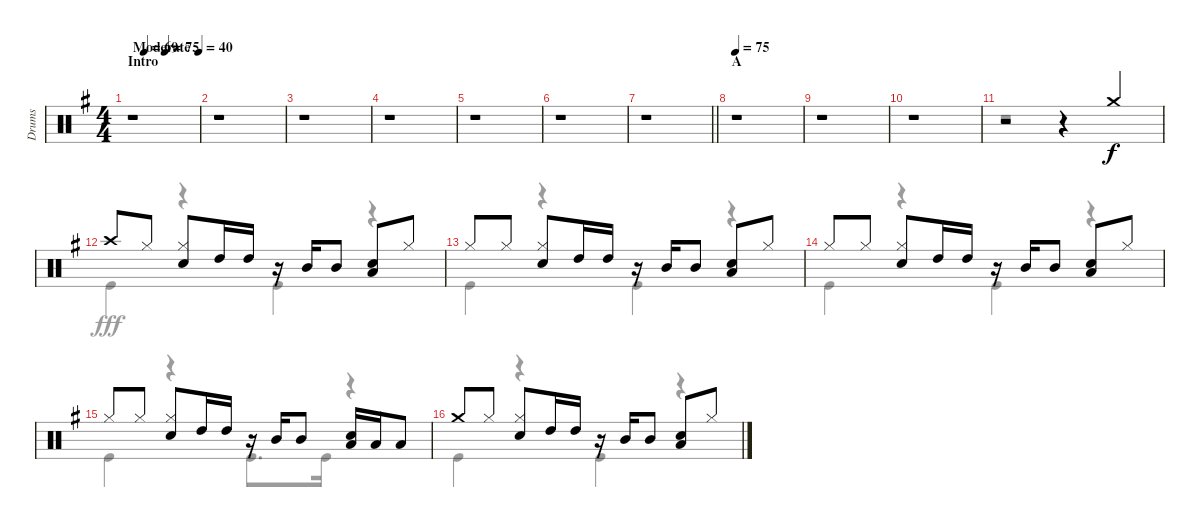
\track ("Drums" "Drums") {instrument percussion}
\staff {score}
\articulation defaults
\voice
\ts (4 4)
\section ("" "Intro")
\tempo (40 "Moderate")
\tempo (69 0.1875)
\tempo (75 0.5)
\tempo (40 "Moderate")
\clef neutral
\ks g
r.1{dy f} |
r.1 |
r.1 |
r.1 |
r.1 |
r.1 |
\barLineRight lightlight
r.1 |
\section ("" "A")
\tempo 75
r.1 |
r.1 |
r.1 |
r.2 r.4 "Crash medium (hit)".4 |
"Crash high (hit)".8 "Hi-Hat (closed)".8 ("Hi-Hat (closed)" "Snare (hit) 2").8 "High Tom (hit)".16 "High Tom (hit)".16 r.16 "Mid Tom (hit)".16 "Mid Tom (hit)".8 ("Snare (hit) 2" "Low Tom (hit)").8 "Hi-Hat (closed)".8 |
"Hi-Hat (closed)".8 "Hi-Hat (closed)".8 ("Hi-Hat (closed)" "Snare (hit) 2").8 "High Tom (hit)".16 "High Tom (hit)".16 r.16 "Mid Tom (hit)".16 "Mid Tom (hit)".8 ("Snare (hit) 2" "Low Tom (hit)").8 "Hi-Hat (closed)".8 |
"Hi-Hat (closed)".8 "Hi-Hat (closed)".8 ("Hi-Hat (closed)" "Snare (hit) 2").8 "High Tom (hit)".16 "High Tom (hit)".16 r.16 "Mid Tom (hit)".16 "Mid Tom (hit)".8 ("Snare (hit) 2" "Low Tom (hit)").8 "Hi-Hat (closed)".8 |
"Hi-Hat (closed)".8 "Hi-Hat (closed)".8 ("Hi-Hat (closed)" "Snare (hit) 2").8 "High Tom (hit)".16 "High Tom (hit)".16 r.16 "Mid Tom (hit)".16 "Mid Tom (hit)".8 ("Snare (hit) 2" "Low Tom (hit)").16 "Low Tom (hit)".16 "Low Tom (hit)".8 |
"Crash medium (hit)".8 "Hi-Hat (closed)".8 ("Hi-Hat (closed)" "Snare (hit) 2").8 "High Tom (hit)".16 "High Tom (hit)".16 r.16 "Mid Tom (hit)".16 "Mid Tom (hit)".8 ("Snare (hit) 2" "Low Tom (hit)").8 "Hi-Hat (closed)".8
\voice
\clef neutral
\ottava regular
\simile none
\ks g
r.1{dy fff} |
r.1 |
r.1 |
r.1 |
r.1 |
r.1 |
\barLineRight lightlight
r.1 |
r.1 |
r.1 |
r.1 |
r.1 |
"Kick (hit)".4 r.4 "Kick (hit)".4 r.4 |
"Kick (hit)".4 r.4 "Kick (hit)".4 r.4 |
"Kick (hit)".4 r.4 "Kick (hit)".4 r.4 |
"Kick (hit)".4 r.4 "Kick (hit)".8{d} "Kick (hit)".16 r.4 |
"Kick (hit)".4 r.4 "Kick (hit)".4 r.4
